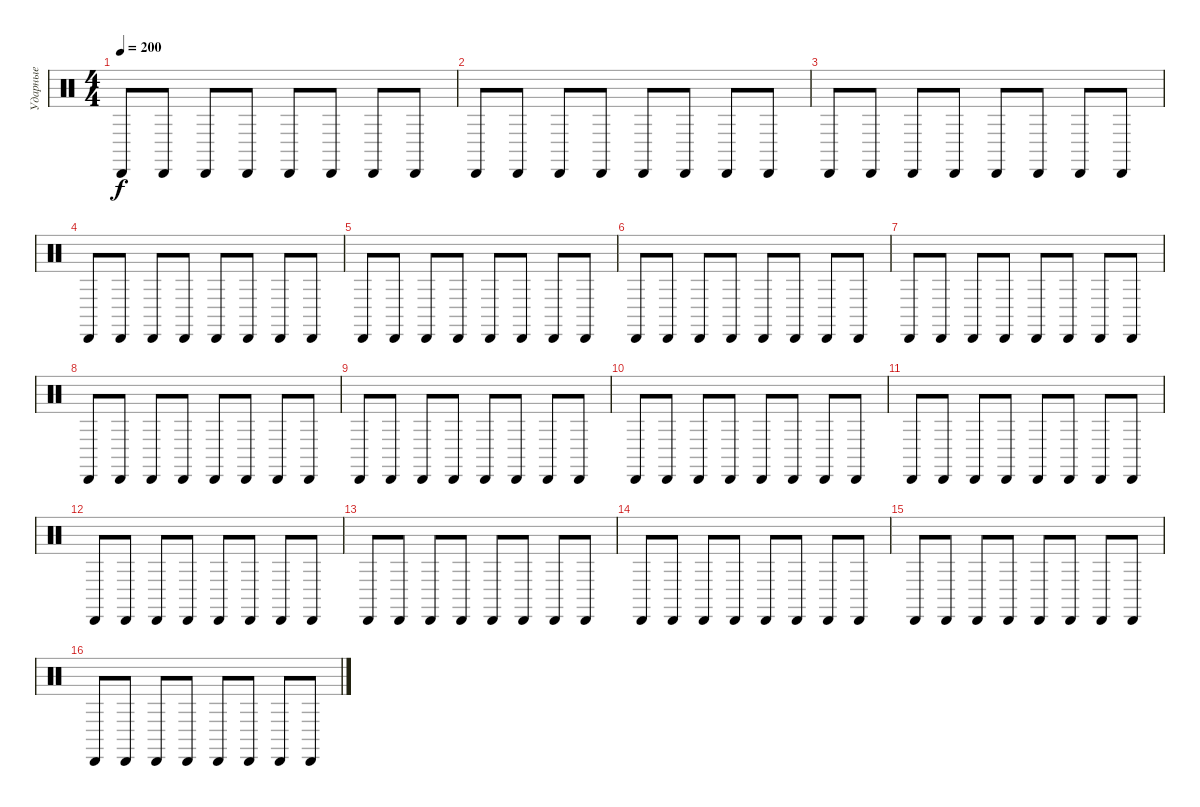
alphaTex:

\track ("Ударные" "Ударные") {instrument percussion}
\staff {score}
\articulation defaults
\ts (4 4)
\tempo 200
\clef neutral
\ks c "Cabasa (hit)".8{dy f} "Cabasa (hit)".8 "Cabasa (hit)".8 "Cabasa (hit)".8 "Cabasa (hit)".8 "Cabasa (hit)".8 "Cabasa (hit)".8 "Cabasa (hit)".8
|
"Cabasa (hit)".8 "Cabasa (hit)".8 "Cabasa (hit)".8 "Cabasa (hit)".8 "Cabasa (hit)".8 "Cabasa (hit)".8 "Cabasa (hit)".8 "Cabasa (hit)".8 |
"Cabasa (hit)".8 "Cabasa (hit)".8 "Cabasa (hit)".8 "Cabasa (hit)".8 "Cabasa (hit)".8 "Cabasa (hit)".8 "Cabasa (hit)".8 "Cabasa (hit)".8 |
"Cabasa (hit)".8 "Cabasa (hit)".8 "Cabasa (hit)".8 "Cabasa (hit)".8 "Cabasa (hit)".8 "Cabasa (hit)".8 "Cabasa (hit)".8 "Cabasa (hit)".8 |
"Cabasa (hit)".8 "Cabasa (hit)".8 "Cabasa (hit)".8 "Cabasa (hit)".8 "Cabasa (hit)".8 "Cabasa (hit)".8 "Cabasa (hit)".8 "Cabasa (hit)".8 |
"Cabasa (hit)".8 "Cabasa (hit)".8 "Cabasa (hit)".8 "Cabasa (hit)".8 "Cabasa (hit)".8 "Cabasa (hit)".8 "Cabasa (hit)".8 "Cabasa (hit)".8 |
"Cabasa (hit)".8 "Cabasa (hit)".8 "Cabasa (hit)".8 "Cabasa (hit)".8 "Cabasa (hit)".8 "Cabasa (hit)".8 "Cabasa (hit)".8 "Cabasa (hit)".8 |
"Cabasa (hit)".8 "Cabasa (hit)".8 "Cabasa (hit)".8 "Cabasa (hit)".8 "Cabasa (hit)".8 "Cabasa (hit)".8 "Cabasa (hit)".8 "Cabasa (hit)".8 |
"Cabasa (hit)".8 "Cabasa (hit)".8 "Cabasa (hit)".8 "Cabasa (hit)".8 "Cabasa (hit)".8 "Cabasa (hit)".8 "Cabasa (hit)".8 "Cabasa (hit)".8 |
"Cabasa (hit)".8 "Cabasa (hit)".8 "Cabasa (hit)".8 "Cabasa (hit)".8 "Cabasa (hit)".8 "Cabasa (hit)".8 "Cabasa (hit)".8 "Cabasa (hit)".8 |
"Cabasa (hit)".8 "Cabasa (hit)".8 "Cabasa (hit)".8 "Cabasa (hit)".8 "Cabasa (hit)".8 "Cabasa (hit)".8 "Cabasa (hit)".8 "Cabasa (hit)".8 |
"Cabasa (hit)".8 "Cabasa (hit)".8 "Cabasa (hit)".8 "Cabasa (hit)".8 "Cabasa (hit)".8 "Cabasa (hit)".8 "Cabasa (hit)".8 "Cabasa (hit)".8 |
"Cabasa (hit)".8 "Cabasa (hit)".8 "Cabasa (hit)".8 "Cabasa (hit)".8 "Cabasa (hit)".8 "Cabasa (hit)".8 "Cabasa (hit)".8 "Cabasa (hit)".8 |
"Cabasa (hit)".8 "Cabasa (hit)".8 "Cabasa (hit)".8 "Cabasa (hit)".8 "Cabasa (hit)".8 "Cabasa (hit)".8 "Cabasa (hit)".8 "Cabasa (hit)".8 |
"Cabasa (hit)".8 "Cabasa (hit)".8 "Cabasa (hit)".8 "Cabasa (hit)".8 "Cabasa (hit)".8 "Cabasa (hit)".8 "Cabasa (hit)".8 "Cabasa (hit)".8 |
"Cabasa (hit)".8 "Cabasa (hit)".8 "Cabasa (hit)".8 "Cabasa (hit)".8 "Cabasa (hit)".8 "Cabasa (hit)".8 "Cabasa (hit)".8 "Cabasa (hit)".8
